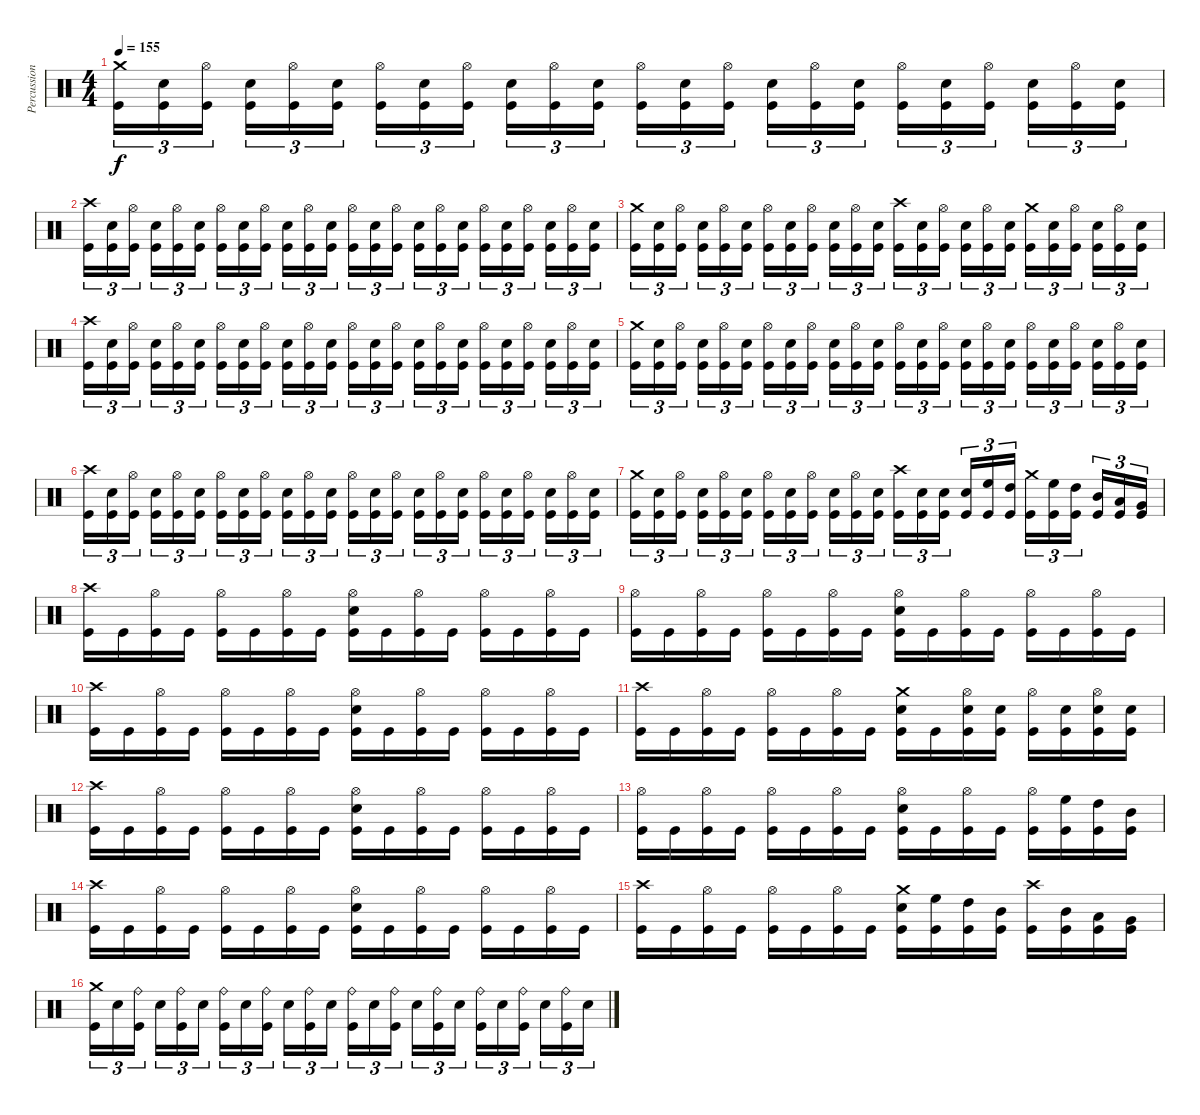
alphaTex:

\track ("Percussion" "Percussion") {instrument percussion}
\staff {score}
\articulation defaults
\ts (4 4)
\tempo 155
\clef neutral
\ks c
("Crash medium (hit)" "Kick (hit)").16{tu (3 2) dy f} ("Snare (hit) 2" "Kick (hit)").16{tu (3 2)} ("Hi-Hat (open)" "Kick (hit)").16{tu (3 2) beam splitsecondary} ("Snare (hit) 2" "Kick (hit)").16{tu (3 2)} ("Hi-Hat (open)" "Kick (hit)").16{tu (3 2)} ("Snare (hit) 2" "Kick (hit)").16{tu (3 2)} ("Hi-Hat (open)" "Kick (hit)").16{tu (3 2)} ("Snare (hit) 2" "Kick (hit)").16{tu (3 2)} ("Hi-Hat (open)" "Kick (hit)").16{tu (3 2) beam splitsecondary} ("Snare (hit) 2" "Kick (hit)").16{tu (3 2)} ("Hi-Hat (open)" "Kick (hit)").16{tu (3 2)} ("Snare (hit) 2" "Kick (hit)").16{tu (3 2)} ("Hi-Hat (open)" "Kick (hit)").16{tu (3 2)} ("Snare (hit) 2" "Kick (hit)").16{tu (3 2)} ("Hi-Hat (open)" "Kick (hit)").16{tu (3 2) beam splitsecondary} ("Snare (hit) 2" "Kick (hit)").16{tu (3 2)} ("Hi-Hat (open)" "Kick (hit)").16{tu (3 2)} ("Snare (hit) 2" "Kick (hit)").16{tu (3 2)} ("Hi-Hat (open)" "Kick (hit)").16{tu (3 2)} ("Snare (hit) 2" "Kick (hit)").16{tu (3 2)} ("Hi-Hat (open)" "Kick (hit)").16{tu (3 2) beam splitsecondary} ("Snare (hit) 2" "Kick (hit)").16{tu (3 2)} ("Hi-Hat (open)" "Kick (hit)").16{tu (3 2)} ("Snare (hit) 2" "Kick (hit)").16{tu (3 2)} |
("Crash high (hit)" "Kick (hit)").16{tu (3 2)} ("Snare (hit) 2" "Kick (hit)").16{tu (3 2)} ("Hi-Hat (open)" "Kick (hit)").16{tu (3 2) beam splitsecondary} ("Snare (hit) 2" "Kick (hit)").16{tu (3 2)} ("Hi-Hat (open)" "Kick (hit)").16{tu (3 2)} ("Snare (hit) 2" "Kick (hit)").16{tu (3 2)} ("Hi-Hat (open)" "Kick (hit)").16{tu (3 2)} ("Snare (hit) 2" "Kick (hit)").16{tu (3 2)} ("Hi-Hat (open)" "Kick (hit)").16{tu (3 2) beam splitsecondary} ("Snare (hit) 2" "Kick (hit)").16{tu (3 2)} ("Hi-Hat (open)" "Kick (hit)").16{tu (3 2)} ("Snare (hit) 2" "Kick (hit)").16{tu (3 2)} ("Hi-Hat (open)" "Kick (hit)").16{tu (3 2)} ("Snare (hit) 2" "Kick (hit)").16{tu (3 2)} ("Hi-Hat (open)" "Kick (hit)").16{tu (3 2) beam splitsecondary} ("Snare (hit) 2" "Kick (hit)").16{tu (3 2)} ("Hi-Hat (open)" "Kick (hit)").16{tu (3 2)} ("Snare (hit) 2" "Kick (hit)").16{tu (3 2)} ("Hi-Hat (open)" "Kick (hit)").16{tu (3 2)} ("Snare (hit) 2" "Kick (hit)").16{tu (3 2)} ("Hi-Hat (open)" "Kick (hit)").16{tu (3 2) beam splitsecondary} ("Snare (hit) 2" "Kick (hit)").16{tu (3 2)} ("Hi-Hat (open)" "Kick (hit)").16{tu (3 2)} ("Snare (hit) 2" "Kick (hit)").16{tu (3 2)} |
("Crash medium (hit)" "Kick (hit)").16{tu (3 2)} ("Snare (hit) 2" "Kick (hit)").16{tu (3 2)} ("Hi-Hat (open)" "Kick (hit)").16{tu (3 2) beam splitsecondary} ("Snare (hit) 2" "Kick (hit)").16{tu (3 2)} ("Hi-Hat (open)" "Kick (hit)").16{tu (3 2)} ("Snare (hit) 2" "Kick (hit)").16{tu (3 2)} ("Hi-Hat (open)" "Kick (hit)").16{tu (3 2)} ("Snare (hit) 2" "Kick (hit)").16{tu (3 2)} ("Hi-Hat (open)" "Kick (hit)").16{tu (3 2) beam splitsecondary} ("Snare (hit) 2" "Kick (hit)").16{tu (3 2)} ("Hi-Hat (open)" "Kick (hit)").16{tu (3 2)} ("Snare (hit) 2" "Kick (hit)").16{tu (3 2)} ("Crash high (hit)" "Kick (hit)").16{tu (3 2)} ("Snare (hit) 2" "Kick (hit)").16{tu (3 2)} ("Hi-Hat (open)" "Kick (hit)").16{tu (3 2) beam splitsecondary} ("Snare (hit) 2" "Kick (hit)").16{tu (3 2)} ("Hi-Hat (open)" "Kick (hit)").16{tu (3 2)} ("Snare (hit) 2" "Kick (hit)").16{tu (3 2)} ("Crash medium (hit)" "Kick (hit)").16{tu (3 2)} ("Snare (hit) 2" "Kick (hit)").16{tu (3 2)} ("Hi-Hat (open)" "Kick (hit)").16{tu (3 2) beam splitsecondary} ("Snare (hit) 2" "Kick (hit)").16{tu (3 2)} ("Hi-Hat (open)" "Kick (hit)").16{tu (3 2)} ("Snare (hit) 2" "Kick (hit)").16{tu (3 2)} |
("Crash high (hit)" "Kick (hit)").16{tu (3 2)} ("Snare (hit) 2" "Kick (hit)").16{tu (3 2)} ("Hi-Hat (open)" "Kick (hit)").16{tu (3 2) beam splitsecondary} ("Snare (hit) 2" "Kick (hit)").16{tu (3 2)} ("Hi-Hat (open)" "Kick (hit)").16{tu (3 2)} ("Snare (hit) 2" "Kick (hit)").16{tu (3 2)} ("Hi-Hat (open)" "Kick (hit)").16{tu (3 2)} ("Snare (hit) 2" "Kick (hit)").16{tu (3 2)} ("Hi-Hat (open)" "Kick (hit)").16{tu (3 2) beam splitsecondary} ("Snare (hit) 2" "Kick (hit)").16{tu (3 2)} ("Hi-Hat (open)" "Kick (hit)").16{tu (3 2)} ("Snare (hit) 2" "Kick (hit)").16{tu (3 2)} ("Hi-Hat (open)" "Kick (hit)").16{tu (3 2)} ("Snare (hit) 2" "Kick (hit)").16{tu (3 2)} ("Hi-Hat (open)" "Kick (hit)").16{tu (3 2) beam splitsecondary} ("Snare (hit) 2" "Kick (hit)").16{tu (3 2)} ("Hi-Hat (open)" "Kick (hit)").16{tu (3 2)} ("Snare (hit) 2" "Kick (hit)").16{tu (3 2)} ("Hi-Hat (open)" "Kick (hit)").16{tu (3 2)} ("Snare (hit) 2" "Kick (hit)").16{tu (3 2)} ("Hi-Hat (open)" "Kick (hit)").16{tu (3 2) beam splitsecondary} ("Snare (hit) 2" "Kick (hit)").16{tu (3 2)} ("Hi-Hat (open)" "Kick (hit)").16{tu (3 2)} ("Snare (hit) 2" "Kick (hit)").16{tu (3 2)} |
("Crash medium (hit)" "Kick (hit)").16{tu (3 2)} ("Snare (hit) 2" "Kick (hit)").16{tu (3 2)} ("Hi-Hat (open)" "Kick (hit)").16{tu (3 2) beam splitsecondary} ("Snare (hit) 2" "Kick (hit)").16{tu (3 2)} ("Hi-Hat (open)" "Kick (hit)").16{tu (3 2)} ("Snare (hit) 2" "Kick (hit)").16{tu (3 2)} ("Hi-Hat (open)" "Kick (hit)").16{tu (3 2)} ("Snare (hit) 2" "Kick (hit)").16{tu (3 2)} ("Hi-Hat (open)" "Kick (hit)").16{tu (3 2) beam splitsecondary} ("Snare (hit) 2" "Kick (hit)").16{tu (3 2)} ("Hi-Hat (open)" "Kick (hit)").16{tu (3 2)} ("Snare (hit) 2" "Kick (hit)").16{tu (3 2)} ("Hi-Hat (open)" "Kick (hit)").16{tu (3 2)} ("Snare (hit) 2" "Kick (hit)").16{tu (3 2)} ("Hi-Hat (open)" "Kick (hit)").16{tu (3 2) beam splitsecondary} ("Snare (hit) 2" "Kick (hit)").16{tu (3 2)} ("Hi-Hat (open)" "Kick (hit)").16{tu (3 2)} ("Snare (hit) 2" "Kick (hit)").16{tu (3 2)} ("Hi-Hat (open)" "Kick (hit)").16{tu (3 2)} ("Snare (hit) 2" "Kick (hit)").16{tu (3 2)} ("Hi-Hat (open)" "Kick (hit)").16{tu (3 2) beam splitsecondary} ("Snare (hit) 2" "Kick (hit)").16{tu (3 2)} ("Hi-Hat (open)" "Kick (hit)").16{tu (3 2)} ("Snare (hit) 2" "Kick (hit)").16{tu (3 2)} |
("Crash high (hit)" "Kick (hit)").16{tu (3 2)} ("Snare (hit) 2" "Kick (hit)").16{tu (3 2)} ("Hi-Hat (open)" "Kick (hit)").16{tu (3 2) beam splitsecondary} ("Snare (hit) 2" "Kick (hit)").16{tu (3 2)} ("Hi-Hat (open)" "Kick (hit)").16{tu (3 2)} ("Snare (hit) 2" "Kick (hit)").16{tu (3 2)} ("Hi-Hat (open)" "Kick (hit)").16{tu (3 2)} ("Snare (hit) 2" "Kick (hit)").16{tu (3 2)} ("Hi-Hat (open)" "Kick (hit)").16{tu (3 2) beam splitsecondary} ("Snare (hit) 2" "Kick (hit)").16{tu (3 2)} ("Hi-Hat (open)" "Kick (hit)").16{tu (3 2)} ("Snare (hit) 2" "Kick (hit)").16{tu (3 2)} ("Hi-Hat (open)" "Kick (hit)").16{tu (3 2)} ("Snare (hit) 2" "Kick (hit)").16{tu (3 2)} ("Hi-Hat (open)" "Kick (hit)").16{tu (3 2) beam splitsecondary} ("Snare (hit) 2" "Kick (hit)").16{tu (3 2)} ("Hi-Hat (open)" "Kick (hit)").16{tu (3 2)} ("Snare (hit) 2" "Kick (hit)").16{tu (3 2)} ("Hi-Hat (open)" "Kick (hit)").16{tu (3 2)} ("Snare (hit) 2" "Kick (hit)").16{tu (3 2)} ("Hi-Hat (open)" "Kick (hit)").16{tu (3 2) beam splitsecondary} ("Snare (hit) 2" "Kick (hit)").16{tu (3 2)} ("Hi-Hat (open)" "Kick (hit)").16{tu (3 2)} ("Snare (hit) 2" "Kick (hit)").16{tu (3 2)} |
("Crash medium (hit)" "Kick (hit)").16{tu (3 2)} ("Snare (hit) 2" "Kick (hit)").16{tu (3 2)} ("Hi-Hat (open)" "Kick (hit)").16{tu (3 2) beam splitsecondary} ("Snare (hit) 2" "Kick (hit)").16{tu (3 2)} ("Hi-Hat (open)" "Kick (hit)").16{tu (3 2)} ("Snare (hit) 2" "Kick (hit)").16{tu (3 2)} ("Hi-Hat (open)" "Kick (hit)").16{tu (3 2)} ("Snare (hit) 2" "Kick (hit)").16{tu (3 2)} ("Hi-Hat (open)" "Kick (hit)").16{tu (3 2) beam splitsecondary} ("Snare (hit) 2" "Kick (hit)").16{tu (3 2)} ("Hi-Hat (open)" "Kick (hit)").16{tu (3 2)} ("Snare (hit) 2" "Kick (hit)").16{tu (3 2)} ("Crash high (hit)" "Kick (hit)").16{tu (3 2)} ("Snare (hit) 2" "Kick (hit)").16{tu (3 2)} ("Snare (hit) 2" "Kick (hit)").16{tu (3 2) beam splitsecondary} ("Snare (hit) 2" "Kick (hit)").16{tu (3 2)} ("High Floor Tom (hit)" "Kick (hit)").16{tu (3 2)} ("High Tom (hit)" "Kick (hit)").16{tu (3 2)} ("Crash medium (hit)" "Kick (hit)").16{tu (3 2)} ("High Floor Tom (hit)" "Kick (hit)").16{tu (3 2)} ("High Tom (hit)" "Kick (hit)").16{tu (3 2) beam splitsecondary} ("Mid Tom (hit)" "Kick (hit)").16{tu (3 2)} ("Low Tom (hit)" "Kick (hit)").16{tu (3 2)} ("Very Low Tom (hit)" "Kick (hit)").16{tu (3 2)} |
("Crash high (hit)" "Kick (hit)").16 "Kick (hit)".16 ("Hi-Hat (open)" "Kick (hit)").16 "Kick (hit)".16 ("Hi-Hat (open)" "Kick (hit)").16 "Kick (hit)".16 ("Hi-Hat (open)" "Kick (hit)").16 "Kick (hit)".16 ("Hi-Hat (open)" "Snare (hit) 2" "Kick (hit)").16 "Kick (hit)".16 ("Hi-Hat (open)" "Kick (hit)").16 "Kick (hit)".16 ("Hi-Hat (open)" "Kick (hit)").16 "Kick (hit)".16 ("Hi-Hat (open)" "Kick (hit)").16 "Kick (hit)".16 |
("Hi-Hat (open)" "Kick (hit)").16 "Kick (hit)".16 ("Hi-Hat (open)" "Kick (hit)").16 "Kick (hit)".16 ("Hi-Hat (open)" "Kick (hit)").16 "Kick (hit)".16 ("Hi-Hat (open)" "Kick (hit)").16 "Kick (hit)".16 ("Hi-Hat (open)" "Snare (hit) 2" "Kick (hit)").16 "Kick (hit)".16 ("Hi-Hat (open)" "Kick (hit)").16 "Kick (hit)".16 ("Hi-Hat (open)" "Kick (hit)").16 "Kick (hit)".16 ("Hi-Hat (open)" "Kick (hit)").16 "Kick (hit)".16 |
("Crash high (hit)" "Kick (hit)").16 "Kick (hit)".16 ("Hi-Hat (open)" "Kick (hit)").16 "Kick (hit)".16 ("Hi-Hat (open)" "Kick (hit)").16 "Kick (hit)".16 ("Hi-Hat (open)" "Kick (hit)").16 "Kick (hit)".16 ("Hi-Hat (open)" "Snare (hit) 2" "Kick (hit)").16 "Kick (hit)".16 ("Hi-Hat (open)" "Kick (hit)").16 "Kick (hit)".16 ("Hi-Hat (open)" "Kick (hit)").16 "Kick (hit)".16 ("Hi-Hat (open)" "Kick (hit)").16 "Kick (hit)".16 |
("Crash high (hit)" "Kick (hit)").16 "Kick (hit)".16 ("Hi-Hat (open)" "Kick (hit)").16 "Kick (hit)".16 ("Hi-Hat (open)" "Kick (hit)").16 "Kick (hit)".16 ("Hi-Hat (open)" "Kick (hit)").16 "Kick (hit)".16 ("Crash medium (hit)" "Snare (hit) 2" "Kick (hit)").16 "Kick (hit)".16 ("Hi-Hat (open)" "Snare (hit) 2" "Kick (hit)").16 ("Snare (hit) 2" "Kick (hit)").16 ("Hi-Hat (open)" "Kick (hit)").16 ("Snare (hit) 2" "Kick (hit)").16 ("Hi-Hat (open)" "Snare (hit) 2" "Kick (hit)").16 ("Snare (hit) 2" "Kick (hit)").16 |
("Crash high (hit)" "Kick (hit)").16 "Kick (hit)".16 ("Hi-Hat (open)" "Kick (hit)").16 "Kick (hit)".16 ("Hi-Hat (open)" "Kick (hit)").16 "Kick (hit)".16 ("Hi-Hat (open)" "Kick (hit)").16 "Kick (hit)".16 ("Hi-Hat (open)" "Snare (hit) 2" "Kick (hit)").16 "Kick (hit)".16 ("Hi-Hat (open)" "Kick (hit)").16 "Kick (hit)".16 ("Hi-Hat (open)" "Kick (hit)").16 "Kick (hit)".16 ("Hi-Hat (open)" "Kick (hit)").16 "Kick (hit)".16 |
("Hi-Hat (open)" "Kick (hit)").16 "Kick (hit)".16 ("Hi-Hat (open)" "Kick (hit)").16 "Kick (hit)".16 ("Hi-Hat (open)" "Kick (hit)").16 "Kick (hit)".16 ("Hi-Hat (open)" "Kick (hit)").16 "Kick (hit)".16 ("Hi-Hat (open)" "Snare (hit) 2" "Kick (hit)").16 "Kick (hit)".16 ("Hi-Hat (open)" "Kick (hit)").16 "Kick (hit)".16 ("Hi-Hat (open)" "Kick (hit)").16 ("High Floor Tom (hit)" "Kick (hit)").16 ("High Tom (hit)" "Kick (hit)").16 ("Mid Tom (hit)" "Kick (hit)").16 |
("Crash high (hit)" "Kick (hit)").16 "Kick (hit)".16 ("Hi-Hat (open)" "Kick (hit)").16 "Kick (hit)".16 ("Hi-Hat (open)" "Kick (hit)").16 "Kick (hit)".16 ("Hi-Hat (open)" "Kick (hit)").16 "Kick (hit)".16 ("Hi-Hat (open)" "Snare (hit) 2" "Kick (hit)").16 "Kick (hit)".16 ("Hi-Hat (open)" "Kick (hit)").16 "Kick (hit)".16 ("Hi-Hat (open)" "Kick (hit)").16 "Kick (hit)".16 ("Hi-Hat (open)" "Kick (hit)").16 "Kick (hit)".16 |
("Crash high (hit)" "Kick (hit)").16 "Kick (hit)".16 ("Hi-Hat (open)" "Kick (hit)").16 "Kick (hit)".16 ("Hi-Hat (open)" "Kick (hit)").16 "Kick (hit)".16 ("Hi-Hat (open)" "Kick (hit)").16 "Kick (hit)".16 ("Crash medium (hit)" "Snare (hit) 2" "Kick (hit)").16 ("High Floor Tom (hit)" "Kick (hit)").16 ("High Tom (hit)" "Kick (hit)").16 ("Mid Tom (hit)" "Kick (hit)").16 ("Crash high (hit)" "Kick (hit)").16 ("Mid Tom (hit)" "Kick (hit)").16 ("Low Tom (hit)" "Kick (hit)").16 ("Very Low Tom (hit)" "Kick (hit)").16 |
("Crash medium (hit)" "Kick (hit)").16{tu (3 2)} "Snare (hit) 2".16{tu (3 2)} ("Ride (bell)" "Kick (hit)").16{tu (3 2) beam splitsecondary} "Snare (hit) 2".16{tu (3 2)} ("Ride (bell)" "Kick (hit)").16{tu (3 2)} "Snare (hit) 2".16{tu (3 2)} ("Ride (bell)" "Kick (hit)").16{tu (3 2)} "Snare (hit) 2".16{tu (3 2)} ("Ride (bell)" "Kick (hit)").16{tu (3 2) beam splitsecondary} "Snare (hit) 2".16{tu (3 2)} ("Ride (bell)" "Kick (hit)").16{tu (3 2)} "Snare (hit) 2".16{tu (3 2)} ("Ride (bell)" "Kick (hit)").16{tu (3 2)} "Snare (hit) 2".16{tu (3 2)} ("Ride (bell)" "Kick (hit)").16{tu (3 2) beam splitsecondary} "Snare (hit) 2".16{tu (3 2)} ("Ride (bell)" "Kick (hit)").16{tu (3 2)} "Snare (hit) 2".16{tu (3 2)} ("Ride (bell)" "Kick (hit)").16{tu (3 2)} "Snare (hit) 2".16{tu (3 2)} ("Ride (bell)" "Kick (hit)").16{tu (3 2) beam splitsecondary} "Snare (hit) 2".16{tu (3 2)} ("Ride (bell)" "Kick (hit)").16{tu (3 2)} "Snare (hit) 2".16{tu (3 2)}
